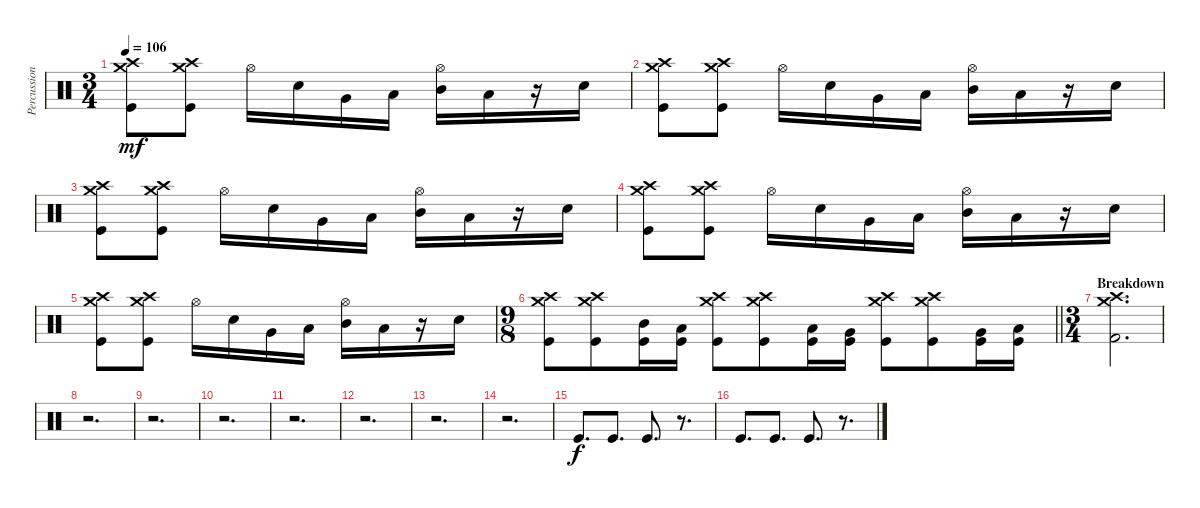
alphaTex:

\track ("Percussion" "Percussion") {instrument percussion}
\staff {score}
\articulation defaults
\ts (3 4)
\tempo 106
\clef neutral
\ks c
("Crash high (hit)" "Crash medium (hit)" "Kick (hit)").8{dy mf} ("Crash high (hit)" "Crash medium (hit)" "Kick (hit)").8 "Hi-Hat (open)".16 "Snare (hit) 2".16 "Very Low Tom (hit)".16 "Low Tom (hit)".16 ("Hi-Hat (open)" "Mid Tom (hit)").16 "Low Tom (hit)".16 r.16 "Snare (hit) 2".16 |
("Crash high (hit)" "Crash medium (hit)" "Kick (hit)").8 ("Crash high (hit)" "Crash medium (hit)" "Kick (hit)").8 "Hi-Hat (open)".16 "Snare (hit) 2".16 "Very Low Tom (hit)".16 "Low Tom (hit)".16 ("Hi-Hat (open)" "Mid Tom (hit)").16 "Low Tom (hit)".16 r.16 "Snare (hit) 2".16 |
("Crash high (hit)" "Crash medium (hit)" "Kick (hit)").8 ("Crash high (hit)" "Crash medium (hit)" "Kick (hit)").8 "Hi-Hat (open)".16 "Snare (hit) 2".16 "Very Low Tom (hit)".16 "Low Tom (hit)".16 ("Hi-Hat (open)" "Mid Tom (hit)").16 "Low Tom (hit)".16 r.16 "Snare (hit) 2".16 |
("Crash high (hit)" "Crash medium (hit)" "Kick (hit)").8 ("Crash high (hit)" "Crash medium (hit)" "Kick (hit)").8 "Hi-Hat (open)".16 "Snare (hit) 2".16 "Very Low Tom (hit)".16 "Low Tom (hit)".16 ("Hi-Hat (open)" "Mid Tom (hit)").16 "Low Tom (hit)".16 r.16 "Snare (hit) 2".16 |
("Crash high (hit)" "Crash medium (hit)" "Kick (hit)").8 ("Crash high (hit)" "Crash medium (hit)" "Kick (hit)").8 "Hi-Hat (open)".16 "Snare (hit) 2".16 "Very Low Tom (hit)".16 "Low Tom (hit)".16 ("Hi-Hat (open)" "Mid Tom (hit)").16 "Low Tom (hit)".16 r.16 "Snare (hit) 2".16 |
\ts (9 8)
\barLineRight lightlight
("Crash high (hit)" "Crash medium (hit)" "Kick (hit)").8 ("Crash high (hit)" "Crash medium (hit)" "Kick (hit)").8 ("Mid Tom (hit)" "Kick (hit)").16 ("Low Tom (hit)" "Kick (hit)").16 ("Crash high (hit)" "Crash medium (hit)" "Kick (hit)").8 ("Crash high (hit)" "Crash medium (hit)" "Kick (hit)").8 ("Low Tom (hit)" "Kick (hit)").16 ("Very Low Tom (hit)" "Kick (hit)").16 ("Crash high (hit)" "Crash medium (hit)" "Kick (hit)").8 ("Crash high (hit)" "Crash medium (hit)" "Kick (hit)").8 ("Very Low Tom (hit)" "Kick (hit)").16 ("Low Floor Tom (hit)" "Kick (hit)").16 |
\ts (3 4)
\section ("" "Breakdown")
("Crash high (hit)" "Crash medium (hit)" "Kick (hit) 2").2{d} |
r.2{d} |
r.2{d} |
r.2{d} |
r.2{d} |
r.2{d} |
r.2{d} |
r.2{d} |
"Kick (hit)".8{d dy f} "Kick (hit)".8{d} "Kick (hit)".8{d} r.8{d} |
"Kick (hit)".8{d} "Kick (hit)".8{d} "Kick (hit)".8{d} r.8{d}
